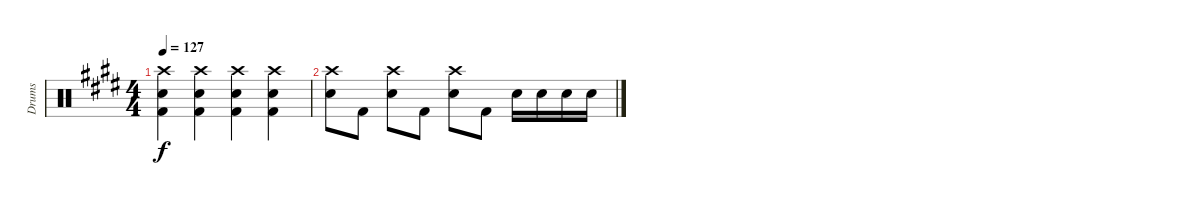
\track ("Drums" "Drums") {instrument percussion}
\staff {score}
\articulation defaults
\ts (4 4)
\tempo 127
\clef neutral
\ks e
("Crash high (hit)" "Electric Snare (hit)" "Kick (hit) 2").4{dy f} ("Crash high (hit)" "Electric Snare (hit)" "Kick (hit) 2").4 ("Crash high (hit)" "Electric Snare (hit)" "Kick (hit) 2").4 ("Crash high (hit)" "Electric Snare (hit)" "Kick (hit) 2").4 |
("Crash high (hit)" "Electric Snare (hit)").8 "Kick (hit) 2".8 ("Crash high (hit)" "Electric Snare (hit)").8 "Kick (hit) 2".8 ("Crash high (hit)" "Electric Snare (hit)").8 "Kick (hit) 2".8 "Electric Snare (hit)".16 "Electric Snare (hit)".16 "Electric Snare (hit)".16 "Electric Snare (hit)".16
